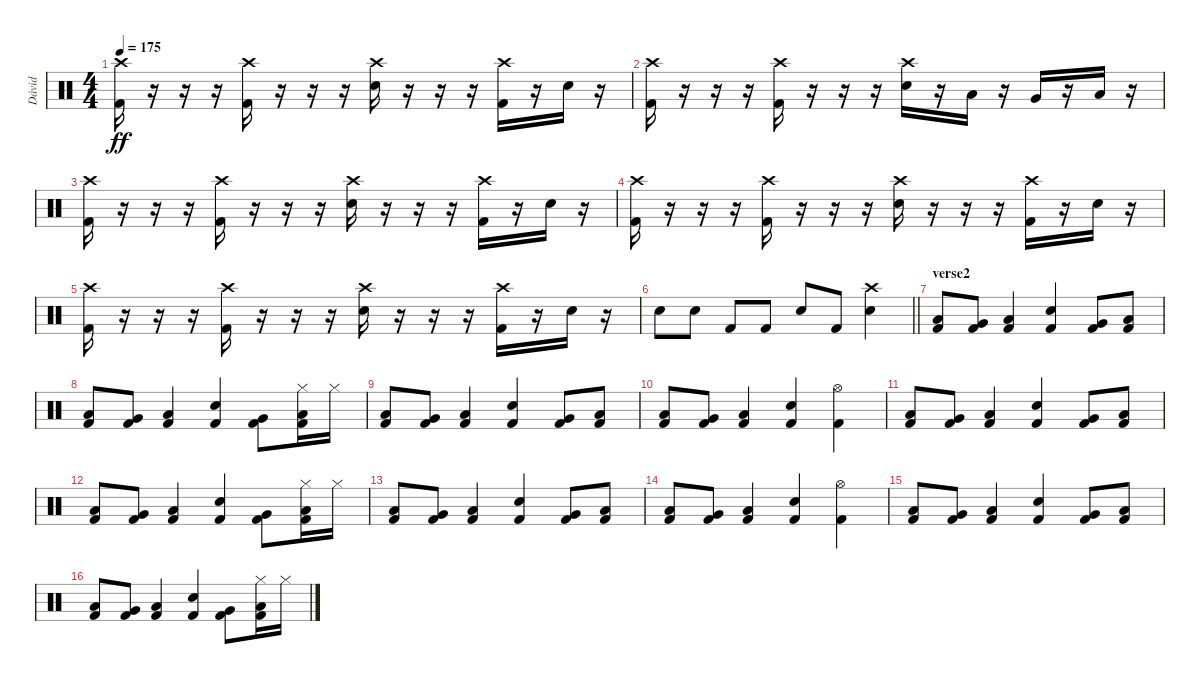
\track ("Dávid" "Dávid") {instrument percussion}
\staff {score}
\articulation defaults
\ts (4 4)
\tempo 175
\clef neutral
\ks c
("Crash high (hit)" "Kick (hit) 2").16{dy ff} r.16 r.16 r.16 ("Crash high (hit)" "Kick (hit) 2").16 r.16 r.16 r.16 ("Crash high (hit)" "Electric Snare (hit)").16 r.16 r.16 r.16 ("Crash high (hit)" "Kick (hit) 2").16 r.16 "Electric Snare (hit)".16 r.16 |
("Crash high (hit)" "Kick (hit) 2").16 r.16 r.16 r.16 ("Crash high (hit)" "Kick (hit) 2").16 r.16 r.16 r.16 ("Crash high (hit)" "Electric Snare (hit)").16 r.16 "Low Tom (hit)".16 r.16 "Very Low Tom (hit)".16 r.16 "Low Floor Tom (hit)".16 r.16 |
("Crash high (hit)" "Kick (hit) 2").16 r.16 r.16 r.16 ("Crash high (hit)" "Kick (hit) 2").16 r.16 r.16 r.16 ("Crash high (hit)" "Electric Snare (hit)").16 r.16 r.16 r.16 ("Crash high (hit)" "Kick (hit) 2").16 r.16 "Electric Snare (hit)".16 r.16 |
("Crash high (hit)" "Kick (hit) 2").16 r.16 r.16 r.16 ("Crash high (hit)" "Kick (hit) 2").16 r.16 r.16 r.16 ("Crash high (hit)" "Electric Snare (hit)").16 r.16 r.16 r.16 ("Crash high (hit)" "Kick (hit) 2").16 r.16 "Electric Snare (hit)".16 r.16 |
("Crash high (hit)" "Kick (hit) 2").16 r.16 r.16 r.16 ("Crash high (hit)" "Kick (hit) 2").16 r.16 r.16 r.16 ("Crash high (hit)" "Electric Snare (hit)").16 r.16 r.16 r.16 ("Crash high (hit)" "Kick (hit) 2").16 r.16 "Electric Snare (hit)".16 r.16 |
\barLineRight lightlight "Electric Snare (hit)".8 "Electric Snare (hit)".8 "Kick (hit) 2".8 "Kick (hit) 2".8 "Electric Snare (hit)".8 "Kick (hit) 2".8
("Crash high (hit)" "Electric Snare (hit)").4 |
\section ("" "verse2")
("Low Tom (hit)" "Kick (hit) 2").8 ("Very Low Tom (hit)" "Kick (hit) 2").8 ("Low Floor Tom (hit)" "Kick (hit) 2").4 ("Electric Snare (hit)" "Kick (hit) 2").4 ("Very Low Tom (hit)" "Kick (hit) 2").8 ("Low Floor Tom (hit)" "Kick (hit) 2").8 |
("Low Tom (hit)" "Kick (hit) 2").8 ("Very Low Tom (hit)" "Kick (hit) 2").8 ("Low Floor Tom (hit)" "Kick (hit) 2").4 ("Electric Snare (hit)" "Kick (hit) 2").4 ("Very Low Tom (hit)" "Kick (hit) 2").8 ("Low Floor Tom (hit)" "Hi-Hat (closed)" "Kick (hit) 2").16 "Hi-Hat (closed)".16 |
("Low Tom (hit)" "Kick (hit) 2").8 ("Very Low Tom (hit)" "Kick (hit) 2").8 ("Low Floor Tom (hit)" "Kick (hit) 2").4 ("Electric Snare (hit)" "Kick (hit) 2").4 ("Very Low Tom (hit)" "Kick (hit) 2").8 ("Low Floor Tom (hit)" "Kick (hit) 2").8 |
("Low Tom (hit)" "Kick (hit) 2").8 ("Very Low Tom (hit)" "Kick (hit) 2").8 ("Low Floor Tom (hit)" "Kick (hit) 2").4 ("Electric Snare (hit)" "Kick (hit) 2").4 ("Hi-Hat (open)" "Kick (hit) 2").4 |
("Low Tom (hit)" "Kick (hit) 2").8 ("Very Low Tom (hit)" "Kick (hit) 2").8 ("Low Floor Tom (hit)" "Kick (hit) 2").4 ("Electric Snare (hit)" "Kick (hit) 2").4 ("Very Low Tom (hit)" "Kick (hit) 2").8 ("Low Floor Tom (hit)" "Kick (hit) 2").8 |
("Low Tom (hit)" "Kick (hit) 2").8 ("Very Low Tom (hit)" "Kick (hit) 2").8 ("Low Floor Tom (hit)" "Kick (hit) 2").4 ("Electric Snare (hit)" "Kick (hit) 2").4 ("Very Low Tom (hit)" "Kick (hit) 2").8 ("Low Floor Tom (hit)" "Hi-Hat (closed)" "Kick (hit) 2").16 "Hi-Hat (closed)".16 |
("Low Tom (hit)" "Kick (hit) 2").8 ("Very Low Tom (hit)" "Kick (hit) 2").8 ("Low Floor Tom (hit)" "Kick (hit) 2").4 ("Electric Snare (hit)" "Kick (hit) 2").4 ("Very Low Tom (hit)" "Kick (hit) 2").8 ("Low Floor Tom (hit)" "Kick (hit) 2").8 |
("Low Tom (hit)" "Kick (hit) 2").8 ("Very Low Tom (hit)" "Kick (hit) 2").8 ("Low Floor Tom (hit)" "Kick (hit) 2").4 ("Electric Snare (hit)" "Kick (hit) 2").4 ("Hi-Hat (open)" "Kick (hit) 2").4 |
("Low Tom (hit)" "Kick (hit) 2").8 ("Very Low Tom (hit)" "Kick (hit) 2").8 ("Low Floor Tom (hit)" "Kick (hit) 2").4 ("Electric Snare (hit)" "Kick (hit) 2").4 ("Very Low Tom (hit)" "Kick (hit) 2").8 ("Low Floor Tom (hit)" "Kick (hit) 2").8 |
("Low Tom (hit)" "Kick (hit) 2").8 ("Very Low Tom (hit)" "Kick (hit) 2").8 ("Low Floor Tom (hit)" "Kick (hit) 2").4 ("Electric Snare (hit)" "Kick (hit) 2").4 ("Very Low Tom (hit)" "Kick (hit) 2").8 ("Low Floor Tom (hit)" "Hi-Hat (closed)" "Kick (hit) 2").16 "Hi-Hat (closed)".16
